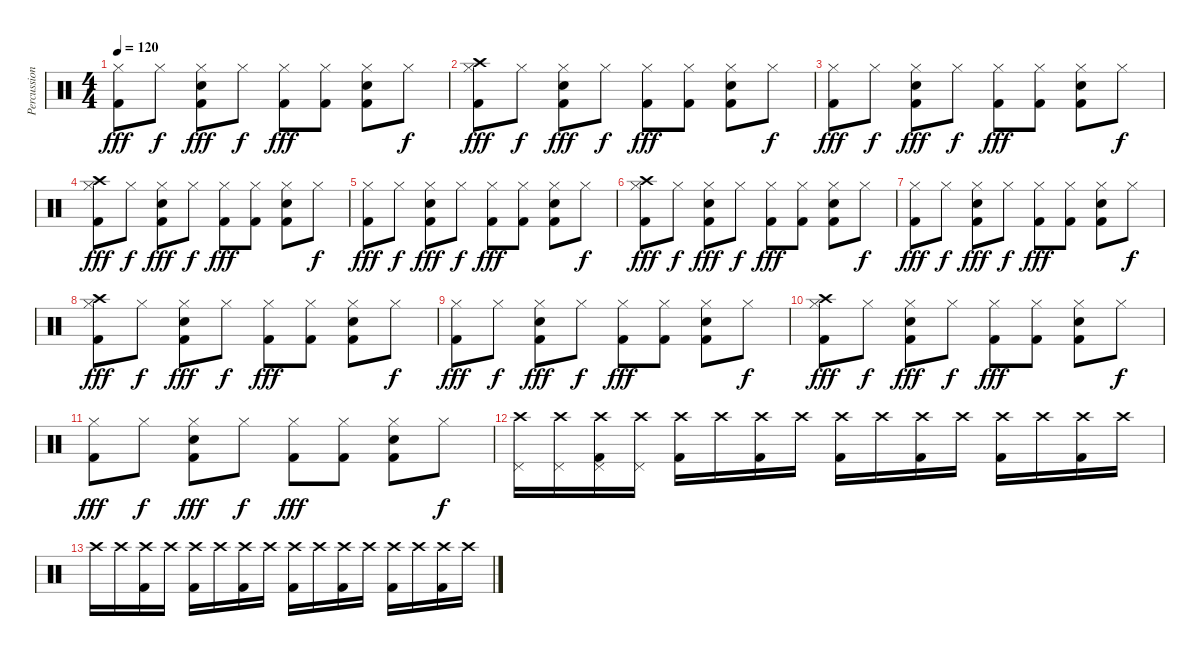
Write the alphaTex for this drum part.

\track ("Percussion: Steve Walchoz" "Percussion") {instrument percussion}
\staff {score}
\articulation defaults
\ts (4 4)
\tempo 120
\clef neutral
\ks c
("Hi-Hat (closed)" "Kick (hit) 2").8{dy fff} "Hi-Hat (closed)".8{dy f} ("Hi-Hat (closed)" "Snare (hit) 2" "Kick (hit) 2").8{dy fff} "Hi-Hat (closed)".8{dy f} ("Hi-Hat (closed)" "Kick (hit) 2").8{dy fff} ("Hi-Hat (closed)" "Kick (hit) 2").8 ("Hi-Hat (closed)" "Snare (hit) 2" "Kick (hit) 2").8 "Hi-Hat (closed)".8{dy f} |
("Crash high (hit)" "Hi-Hat (closed)" "Kick (hit) 2").8{dy fff} "Hi-Hat (closed)".8{dy f} ("Hi-Hat (closed)" "Snare (hit) 2" "Kick (hit) 2").8{dy fff} "Hi-Hat (closed)".8{dy f} ("Hi-Hat (closed)" "Kick (hit) 2").8{dy fff} ("Hi-Hat (closed)" "Kick (hit) 2").8 ("Hi-Hat (closed)" "Snare (hit) 2" "Kick (hit) 2").8 "Hi-Hat (closed)".8{dy f} |
("Hi-Hat (closed)" "Kick (hit) 2").8{dy fff} "Hi-Hat (closed)".8{dy f} ("Hi-Hat (closed)" "Snare (hit) 2" "Kick (hit) 2").8{dy fff} "Hi-Hat (closed)".8{dy f} ("Hi-Hat (closed)" "Kick (hit) 2").8{dy fff} ("Hi-Hat (closed)" "Kick (hit) 2").8 ("Hi-Hat (closed)" "Snare (hit) 2" "Kick (hit) 2").8 "Hi-Hat (closed)".8{dy f} |
("Crash high (hit)" "Hi-Hat (closed)" "Kick (hit) 2").8{dy fff} "Hi-Hat (closed)".8{dy f} ("Hi-Hat (closed)" "Snare (hit) 2" "Kick (hit) 2").8{dy fff} "Hi-Hat (closed)".8{dy f} ("Hi-Hat (closed)" "Kick (hit) 2").8{dy fff} ("Hi-Hat (closed)" "Kick (hit) 2").8 ("Hi-Hat (closed)" "Snare (hit) 2" "Kick (hit) 2").8 "Hi-Hat (closed)".8{dy f} |
("Hi-Hat (closed)" "Kick (hit) 2").8{dy fff} "Hi-Hat (closed)".8{dy f} ("Hi-Hat (closed)" "Snare (hit) 2" "Kick (hit) 2").8{dy fff} "Hi-Hat (closed)".8{dy f} ("Hi-Hat (closed)" "Kick (hit) 2").8{dy fff} ("Hi-Hat (closed)" "Kick (hit) 2").8 ("Hi-Hat (closed)" "Snare (hit) 2" "Kick (hit) 2").8 "Hi-Hat (closed)".8{dy f} |
("Crash high (hit)" "Hi-Hat (closed)" "Kick (hit) 2").8{dy fff} "Hi-Hat (closed)".8{dy f} ("Hi-Hat (closed)" "Snare (hit) 2" "Kick (hit) 2").8{dy fff} "Hi-Hat (closed)".8{dy f} ("Hi-Hat (closed)" "Kick (hit) 2").8{dy fff} ("Hi-Hat (closed)" "Kick (hit) 2").8 ("Hi-Hat (closed)" "Snare (hit) 2" "Kick (hit) 2").8 "Hi-Hat (closed)".8{dy f} |
("Hi-Hat (closed)" "Kick (hit) 2").8{dy fff} "Hi-Hat (closed)".8{dy f} ("Hi-Hat (closed)" "Snare (hit) 2" "Kick (hit) 2").8{dy fff} "Hi-Hat (closed)".8{dy f} ("Hi-Hat (closed)" "Kick (hit) 2").8{dy fff} ("Hi-Hat (closed)" "Kick (hit) 2").8 ("Hi-Hat (closed)" "Snare (hit) 2" "Kick (hit) 2").8 "Hi-Hat (closed)".8{dy f} |
("Crash high (hit)" "Hi-Hat (closed)" "Kick (hit) 2").8{dy fff} "Hi-Hat (closed)".8{dy f} ("Hi-Hat (closed)" "Snare (hit) 2" "Kick (hit) 2").8{dy fff} "Hi-Hat (closed)".8{dy f} ("Hi-Hat (closed)" "Kick (hit) 2").8{dy fff} ("Hi-Hat (closed)" "Kick (hit) 2").8 ("Hi-Hat (closed)" "Snare (hit) 2" "Kick (hit) 2").8 "Hi-Hat (closed)".8{dy f} |
("Hi-Hat (closed)" "Kick (hit) 2").8{dy fff} "Hi-Hat (closed)".8{dy f} ("Hi-Hat (closed)" "Snare (hit) 2" "Kick (hit) 2").8{dy fff} "Hi-Hat (closed)".8{dy f} ("Hi-Hat (closed)" "Kick (hit) 2").8{dy fff} ("Hi-Hat (closed)" "Kick (hit) 2").8 ("Hi-Hat (closed)" "Snare (hit) 2" "Kick (hit) 2").8 "Hi-Hat (closed)".8{dy f} |
("Crash high (hit)" "Hi-Hat (closed)" "Kick (hit) 2").8{dy fff} "Hi-Hat (closed)".8{dy f} ("Hi-Hat (closed)" "Snare (hit) 2" "Kick (hit) 2").8{dy fff} "Hi-Hat (closed)".8{dy f} ("Hi-Hat (closed)" "Kick (hit) 2").8{dy fff} ("Hi-Hat (closed)" "Kick (hit) 2").8 ("Hi-Hat (closed)" "Snare (hit) 2" "Kick (hit) 2").8 "Hi-Hat (closed)".8{dy f} |
("Hi-Hat (closed)" "Kick (hit) 2").8{dy fff} "Hi-Hat (closed)".8{dy f} ("Hi-Hat (closed)" "Snare (hit) 2" "Kick (hit) 2").8{dy fff} "Hi-Hat (closed)".8{dy f} ("Hi-Hat (closed)" "Kick (hit) 2").8{dy fff} ("Hi-Hat (closed)" "Kick (hit) 2").8 ("Hi-Hat (closed)" "Snare (hit) 2" "Kick (hit) 2").8 "Hi-Hat (closed)".8{dy f} |
("Crash high (hit)" "Pedal Hi-Hat (hit)").16 ("Crash high (hit)" "Pedal Hi-Hat (hit)").16 ("Crash high (hit)" "Kick (hit) 2" "Pedal Hi-Hat (hit)").16 ("Crash high (hit)" "Pedal Hi-Hat (hit)").16 ("Crash high (hit)" "Kick (hit) 2").16 "Crash high (hit)".16 ("Crash high (hit)" "Kick (hit) 2").16 "Crash high (hit)".16 ("Crash high (hit)" "Kick (hit) 2").16 "Crash high (hit)".16 ("Crash high (hit)" "Kick (hit) 2").16 "Crash high (hit)".16 ("Crash high (hit)" "Kick (hit) 2").16 "Crash high (hit)".16 ("Crash high (hit)" "Kick (hit) 2").16 "Crash high (hit)".16 |
"Crash high (hit)".16 "Crash high (hit)".16 ("Crash high (hit)" "Kick (hit) 2").16 "Crash high (hit)".16 ("Crash high (hit)" "Kick (hit) 2").16 "Crash high (hit)".16 ("Crash high (hit)" "Kick (hit) 2").16 "Crash high (hit)".16 ("Crash high (hit)" "Kick (hit) 2").16 "Crash high (hit)".16 ("Crash high (hit)" "Kick (hit) 2").16 "Crash high (hit)".16 ("Crash high (hit)" "Kick (hit) 2").16 "Crash high (hit)".16 ("Crash high (hit)" "Kick (hit) 2").16 "Crash high (hit)".16
